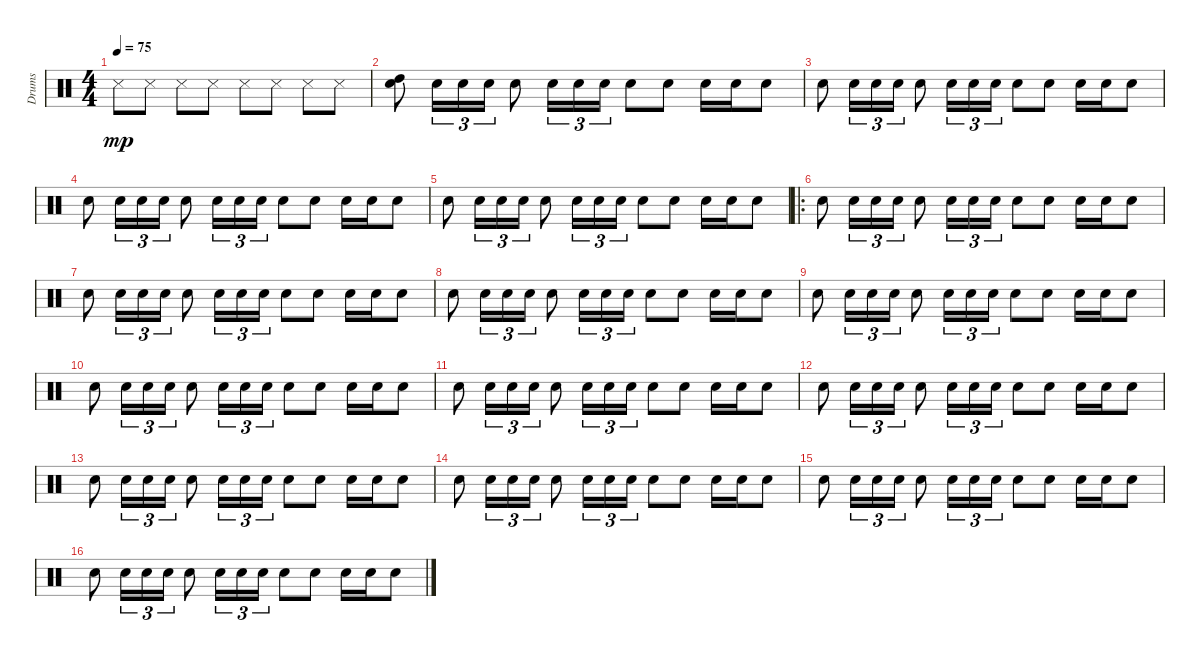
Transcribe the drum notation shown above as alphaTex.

\track ("Drums" "Drums") {instrument percussion}
\staff {score}
\articulation defaults
\ts (4 4)
\tempo 75
\clef neutral
\ks c "Snare (side stick) 3".8{dy mp} "Snare (side stick) 3".8 "Snare (side stick) 3".8 "Snare (side stick) 3".8 "Snare (side stick) 3".8 "Snare (side stick) 3".8 "Snare (side stick) 3".8 "Snare (side stick) 3".8
|
("Snare (hit) 2" "High Tom (hit)").8 "Snare (hit) 2".16{tu (3 2)} "Snare (hit) 2".16{tu (3 2)} "Snare (hit) 2".16{tu (3 2)} "Snare (hit) 2".8 "Snare (hit) 2".16{tu (3 2)} "Snare (hit) 2".16{tu (3 2)} "Snare (hit) 2".16{tu (3 2)} "Snare (hit) 2".8 "Snare (hit) 2".8 "Snare (hit) 2".16 "Snare (hit) 2".16 "Snare (hit) 2".8 |
"Snare (hit) 2".8 "Snare (hit) 2".16{tu (3 2)} "Snare (hit) 2".16{tu (3 2)} "Snare (hit) 2".16{tu (3 2)} "Snare (hit) 2".8 "Snare (hit) 2".16{tu (3 2)} "Snare (hit) 2".16{tu (3 2)} "Snare (hit) 2".16{tu (3 2)} "Snare (hit) 2".8 "Snare (hit) 2".8 "Snare (hit) 2".16 "Snare (hit) 2".16 "Snare (hit) 2".8 |
"Snare (hit) 2".8 "Snare (hit) 2".16{tu (3 2)} "Snare (hit) 2".16{tu (3 2)} "Snare (hit) 2".16{tu (3 2)} "Snare (hit) 2".8 "Snare (hit) 2".16{tu (3 2)} "Snare (hit) 2".16{tu (3 2)} "Snare (hit) 2".16{tu (3 2)} "Snare (hit) 2".8 "Snare (hit) 2".8 "Snare (hit) 2".16 "Snare (hit) 2".16 "Snare (hit) 2".8 |
"Snare (hit) 2".8 "Snare (hit) 2".16{tu (3 2)} "Snare (hit) 2".16{tu (3 2)} "Snare (hit) 2".16{tu (3 2)} "Snare (hit) 2".8 "Snare (hit) 2".16{tu (3 2)} "Snare (hit) 2".16{tu (3 2)} "Snare (hit) 2".16{tu (3 2)} "Snare (hit) 2".8 "Snare (hit) 2".8 "Snare (hit) 2".16 "Snare (hit) 2".16 "Snare (hit) 2".8 |
\ro "Snare (hit) 2".8 "Snare (hit) 2".16{tu (3 2)} "Snare (hit) 2".16{tu (3 2)} "Snare (hit) 2".16{tu (3 2)} "Snare (hit) 2".8 "Snare (hit) 2".16{tu (3 2)} "Snare (hit) 2".16{tu (3 2)} "Snare (hit) 2".16{tu (3 2)} "Snare (hit) 2".8 "Snare (hit) 2".8 "Snare (hit) 2".16 "Snare (hit) 2".16 "Snare (hit) 2".8
|
"Snare (hit) 2".8 "Snare (hit) 2".16{tu (3 2)} "Snare (hit) 2".16{tu (3 2)} "Snare (hit) 2".16{tu (3 2)} "Snare (hit) 2".8 "Snare (hit) 2".16{tu (3 2)} "Snare (hit) 2".16{tu (3 2)} "Snare (hit) 2".16{tu (3 2)} "Snare (hit) 2".8 "Snare (hit) 2".8 "Snare (hit) 2".16 "Snare (hit) 2".16 "Snare (hit) 2".8 |
"Snare (hit) 2".8 "Snare (hit) 2".16{tu (3 2)} "Snare (hit) 2".16{tu (3 2)} "Snare (hit) 2".16{tu (3 2)} "Snare (hit) 2".8 "Snare (hit) 2".16{tu (3 2)} "Snare (hit) 2".16{tu (3 2)} "Snare (hit) 2".16{tu (3 2)} "Snare (hit) 2".8 "Snare (hit) 2".8 "Snare (hit) 2".16 "Snare (hit) 2".16 "Snare (hit) 2".8 |
"Snare (hit) 2".8 "Snare (hit) 2".16{tu (3 2)} "Snare (hit) 2".16{tu (3 2)} "Snare (hit) 2".16{tu (3 2)} "Snare (hit) 2".8 "Snare (hit) 2".16{tu (3 2)} "Snare (hit) 2".16{tu (3 2)} "Snare (hit) 2".16{tu (3 2)} "Snare (hit) 2".8 "Snare (hit) 2".8 "Snare (hit) 2".16 "Snare (hit) 2".16 "Snare (hit) 2".8 |
"Snare (hit) 2".8 "Snare (hit) 2".16{tu (3 2)} "Snare (hit) 2".16{tu (3 2)} "Snare (hit) 2".16{tu (3 2)} "Snare (hit) 2".8 "Snare (hit) 2".16{tu (3 2)} "Snare (hit) 2".16{tu (3 2)} "Snare (hit) 2".16{tu (3 2)} "Snare (hit) 2".8 "Snare (hit) 2".8 "Snare (hit) 2".16 "Snare (hit) 2".16 "Snare (hit) 2".8 |
"Snare (hit) 2".8 "Snare (hit) 2".16{tu (3 2)} "Snare (hit) 2".16{tu (3 2)} "Snare (hit) 2".16{tu (3 2)} "Snare (hit) 2".8 "Snare (hit) 2".16{tu (3 2)} "Snare (hit) 2".16{tu (3 2)} "Snare (hit) 2".16{tu (3 2)} "Snare (hit) 2".8 "Snare (hit) 2".8 "Snare (hit) 2".16 "Snare (hit) 2".16 "Snare (hit) 2".8 |
"Snare (hit) 2".8 "Snare (hit) 2".16{tu (3 2)} "Snare (hit) 2".16{tu (3 2)} "Snare (hit) 2".16{tu (3 2)} "Snare (hit) 2".8 "Snare (hit) 2".16{tu (3 2)} "Snare (hit) 2".16{tu (3 2)} "Snare (hit) 2".16{tu (3 2)} "Snare (hit) 2".8 "Snare (hit) 2".8 "Snare (hit) 2".16 "Snare (hit) 2".16 "Snare (hit) 2".8 |
"Snare (hit) 2".8 "Snare (hit) 2".16{tu (3 2)} "Snare (hit) 2".16{tu (3 2)} "Snare (hit) 2".16{tu (3 2)} "Snare (hit) 2".8 "Snare (hit) 2".16{tu (3 2)} "Snare (hit) 2".16{tu (3 2)} "Snare (hit) 2".16{tu (3 2)} "Snare (hit) 2".8 "Snare (hit) 2".8 "Snare (hit) 2".16 "Snare (hit) 2".16 "Snare (hit) 2".8 |
"Snare (hit) 2".8 "Snare (hit) 2".16{tu (3 2)} "Snare (hit) 2".16{tu (3 2)} "Snare (hit) 2".16{tu (3 2)} "Snare (hit) 2".8 "Snare (hit) 2".16{tu (3 2)} "Snare (hit) 2".16{tu (3 2)} "Snare (hit) 2".16{tu (3 2)} "Snare (hit) 2".8 "Snare (hit) 2".8 "Snare (hit) 2".16 "Snare (hit) 2".16 "Snare (hit) 2".8 |
"Snare (hit) 2".8 "Snare (hit) 2".16{tu (3 2)} "Snare (hit) 2".16{tu (3 2)} "Snare (hit) 2".16{tu (3 2)} "Snare (hit) 2".8 "Snare (hit) 2".16{tu (3 2)} "Snare (hit) 2".16{tu (3 2)} "Snare (hit) 2".16{tu (3 2)} "Snare (hit) 2".8 "Snare (hit) 2".8 "Snare (hit) 2".16 "Snare (hit) 2".16 "Snare (hit) 2".8 |
"Snare (hit) 2".8 "Snare (hit) 2".16{tu (3 2)} "Snare (hit) 2".16{tu (3 2)} "Snare (hit) 2".16{tu (3 2)} "Snare (hit) 2".8 "Snare (hit) 2".16{tu (3 2)} "Snare (hit) 2".16{tu (3 2)} "Snare (hit) 2".16{tu (3 2)} "Snare (hit) 2".8 "Snare (hit) 2".8 "Snare (hit) 2".16 "Snare (hit) 2".16 "Snare (hit) 2".8
